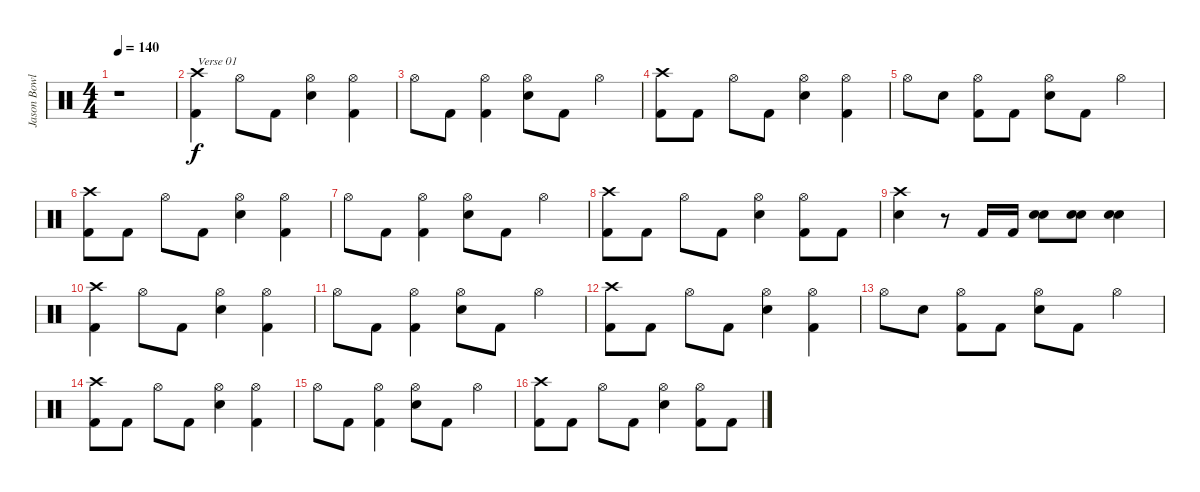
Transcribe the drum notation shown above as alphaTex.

\track ("Jason Bowld" "Jason Bowl") {instrument percussion}
\staff {score}
\articulation defaults
\ts (4 4)
\tempo 140
\clef neutral
\ks c
r.1{dy f} |
("Crash high (hit)" "Kick (hit) 2").4{txt "Verse 01"} "Hi-Hat (open)".8 "Kick (hit) 2".8 ("Hi-Hat (open)" "Snare (hit) 2").4 ("Hi-Hat (open)" "Kick (hit) 2").4 |
"Hi-Hat (open)".8 "Kick (hit) 2".8 ("Hi-Hat (open)" "Kick (hit) 2").4 ("Hi-Hat (open)" "Snare (hit) 2").8 "Kick (hit) 2".8 "Hi-Hat (open)".4 |
("Crash high (hit)" "Kick (hit) 2").8 "Kick (hit) 2".8 "Hi-Hat (open)".8 "Kick (hit) 2".8 ("Hi-Hat (open)" "Snare (hit) 2").4 ("Hi-Hat (open)" "Kick (hit) 2").4 |
"Hi-Hat (open)".8 "Snare (hit) 2".8 ("Hi-Hat (open)" "Kick (hit) 2").8 "Kick (hit) 2".8 ("Hi-Hat (open)" "Snare (hit) 2").8 "Kick (hit) 2".8 "Hi-Hat (open)".4 |
("Crash high (hit)" "Kick (hit) 2").8 "Kick (hit) 2".8 "Hi-Hat (open)".8 "Kick (hit) 2".8 ("Hi-Hat (open)" "Snare (hit) 2").4 ("Hi-Hat (open)" "Kick (hit) 2").4 |
"Hi-Hat (open)".8 "Kick (hit) 2".8 ("Hi-Hat (open)" "Kick (hit) 2").4 ("Hi-Hat (open)" "Snare (hit) 2").8 "Kick (hit) 2".8 "Hi-Hat (open)".4 |
("Crash high (hit)" "Kick (hit) 2").8 "Kick (hit) 2".8 "Hi-Hat (open)".8 "Kick (hit) 2".8 ("Hi-Hat (open)" "Snare (hit) 2").4 ("Hi-Hat (open)" "Kick (hit) 2").8 "Kick (hit) 2".8 |
("Crash high (hit)" "Snare (hit) 2").4 r.8 "Kick (hit) 2".16 "Kick (hit) 2".16 ("Snare (hit) 2" "Snare (hit) 2").8 ("Snare (hit) 2" "Snare (hit) 2").8 ("Snare (hit) 2" "Snare (hit) 2").4 |
("Crash high (hit)" "Kick (hit) 2").4 "Hi-Hat (open)".8 "Kick (hit) 2".8 ("Hi-Hat (open)" "Snare (hit) 2").4 ("Hi-Hat (open)" "Kick (hit) 2").4 |
"Hi-Hat (open)".8 "Kick (hit) 2".8 ("Hi-Hat (open)" "Kick (hit) 2").4 ("Hi-Hat (open)" "Snare (hit) 2").8 "Kick (hit) 2".8 "Hi-Hat (open)".4 |
("Crash high (hit)" "Kick (hit) 2").8 "Kick (hit) 2".8 "Hi-Hat (open)".8 "Kick (hit) 2".8 ("Hi-Hat (open)" "Snare (hit) 2").4 ("Hi-Hat (open)" "Kick (hit) 2").4 |
"Hi-Hat (open)".8 "Snare (hit) 2".8 ("Hi-Hat (open)" "Kick (hit) 2").8 "Kick (hit) 2".8 ("Hi-Hat (open)" "Snare (hit) 2").8 "Kick (hit) 2".8 "Hi-Hat (open)".4 |
("Crash high (hit)" "Kick (hit) 2").8 "Kick (hit) 2".8 "Hi-Hat (open)".8 "Kick (hit) 2".8 ("Hi-Hat (open)" "Snare (hit) 2").4 ("Hi-Hat (open)" "Kick (hit) 2").4 |
"Hi-Hat (open)".8 "Kick (hit) 2".8 ("Hi-Hat (open)" "Kick (hit) 2").4 ("Hi-Hat (open)" "Snare (hit) 2").8 "Kick (hit) 2".8 "Hi-Hat (open)".4 |
("Crash high (hit)" "Kick (hit) 2").8 "Kick (hit) 2".8 "Hi-Hat (open)".8 "Kick (hit) 2".8 ("Hi-Hat (open)" "Snare (hit) 2").4 ("Hi-Hat (open)" "Kick (hit) 2").8 "Kick (hit) 2".8
